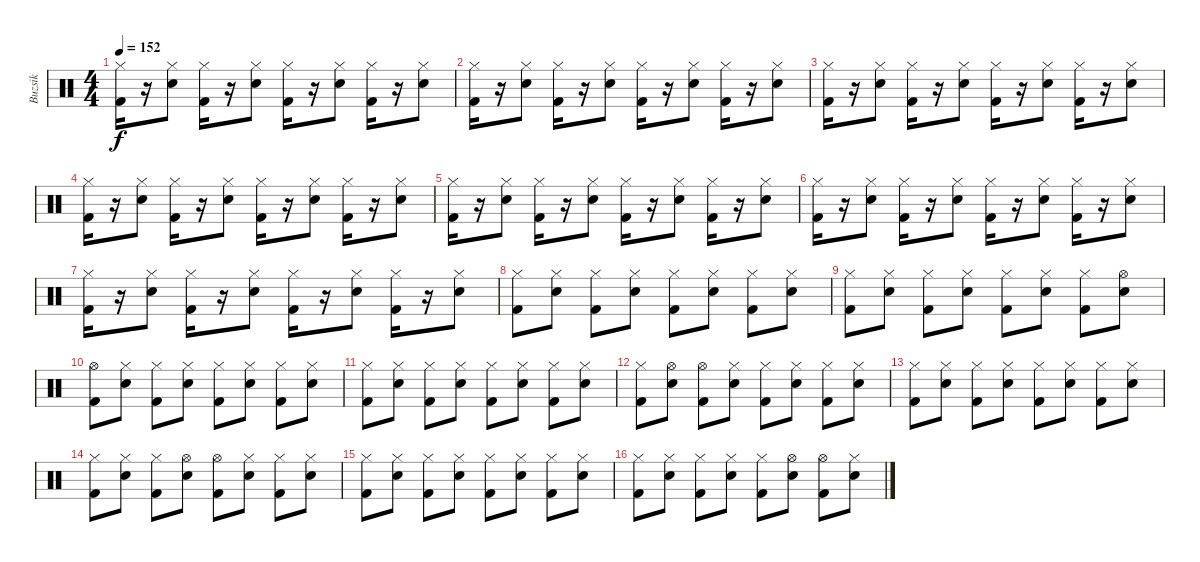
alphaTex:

\track ("Buzsik" "Buzsik") {instrument percussion}
\staff {score}
\articulation defaults
\ts (4 4)
\tempo 152
\clef neutral
\ks c
("Hi-Hat (closed)" "Kick (hit) 2").16{dy f} r.16 ("Hi-Hat (closed)" "Electric Snare (hit)").8 ("Hi-Hat (closed)" "Kick (hit) 2").16 r.16 ("Hi-Hat (closed)" "Electric Snare (hit)").8 ("Hi-Hat (closed)" "Kick (hit) 2").16 r.16 ("Hi-Hat (closed)" "Electric Snare (hit)").8 ("Hi-Hat (closed)" "Kick (hit) 2").16 r.16 ("Hi-Hat (closed)" "Electric Snare (hit)").8 |
("Hi-Hat (closed)" "Kick (hit) 2").16 r.16 ("Hi-Hat (closed)" "Electric Snare (hit)").8 ("Hi-Hat (closed)" "Kick (hit) 2").16 r.16 ("Hi-Hat (closed)" "Electric Snare (hit)").8 ("Hi-Hat (closed)" "Kick (hit) 2").16 r.16 ("Hi-Hat (closed)" "Electric Snare (hit)").8 ("Hi-Hat (closed)" "Kick (hit) 2").16 r.16 ("Hi-Hat (closed)" "Electric Snare (hit)").8 |
("Hi-Hat (closed)" "Kick (hit) 2").16 r.16 ("Hi-Hat (closed)" "Electric Snare (hit)").8 ("Hi-Hat (closed)" "Kick (hit) 2").16 r.16 ("Hi-Hat (closed)" "Electric Snare (hit)").8 ("Hi-Hat (closed)" "Kick (hit) 2").16 r.16 ("Hi-Hat (closed)" "Electric Snare (hit)").8 ("Hi-Hat (closed)" "Kick (hit) 2").16 r.16 ("Hi-Hat (closed)" "Electric Snare (hit)").8 |
("Hi-Hat (closed)" "Kick (hit) 2").16 r.16 ("Hi-Hat (closed)" "Electric Snare (hit)").8 ("Hi-Hat (closed)" "Kick (hit) 2").16 r.16 ("Hi-Hat (closed)" "Electric Snare (hit)").8 ("Hi-Hat (closed)" "Kick (hit) 2").16 r.16 ("Hi-Hat (closed)" "Electric Snare (hit)").8 ("Hi-Hat (closed)" "Kick (hit) 2").16 r.16 ("Hi-Hat (closed)" "Electric Snare (hit)").8 |
("Hi-Hat (closed)" "Kick (hit) 2").16 r.16 ("Hi-Hat (closed)" "Electric Snare (hit)").8 ("Hi-Hat (closed)" "Kick (hit) 2").16 r.16 ("Hi-Hat (closed)" "Electric Snare (hit)").8 ("Hi-Hat (closed)" "Kick (hit) 2").16 r.16 ("Hi-Hat (closed)" "Electric Snare (hit)").8 ("Hi-Hat (closed)" "Kick (hit) 2").16 r.16 ("Hi-Hat (closed)" "Electric Snare (hit)").8 |
("Hi-Hat (closed)" "Kick (hit) 2").16 r.16 ("Hi-Hat (closed)" "Electric Snare (hit)").8 ("Hi-Hat (closed)" "Kick (hit) 2").16 r.16 ("Hi-Hat (closed)" "Electric Snare (hit)").8 ("Hi-Hat (closed)" "Kick (hit) 2").16 r.16 ("Hi-Hat (closed)" "Electric Snare (hit)").8 ("Hi-Hat (closed)" "Kick (hit) 2").16 r.16 ("Hi-Hat (closed)" "Electric Snare (hit)").8 |
("Hi-Hat (closed)" "Kick (hit) 2").16 r.16 ("Hi-Hat (closed)" "Electric Snare (hit)").8 ("Hi-Hat (closed)" "Kick (hit) 2").16 r.16 ("Hi-Hat (closed)" "Electric Snare (hit)").8 ("Hi-Hat (closed)" "Kick (hit) 2").16 r.16 ("Hi-Hat (closed)" "Electric Snare (hit)").8 ("Hi-Hat (closed)" "Kick (hit) 2").16 r.16 ("Hi-Hat (closed)" "Electric Snare (hit)").8 |
("Hi-Hat (closed)" "Kick (hit) 2").8 ("Hi-Hat (closed)" "Electric Snare (hit)").8 ("Hi-Hat (closed)" "Kick (hit) 2").8 ("Hi-Hat (closed)" "Electric Snare (hit)").8 ("Hi-Hat (closed)" "Kick (hit) 2").8 ("Hi-Hat (closed)" "Electric Snare (hit)").8 ("Hi-Hat (closed)" "Kick (hit) 2").8 ("Hi-Hat (closed)" "Electric Snare (hit)").8 |
("Hi-Hat (closed)" "Kick (hit) 2").8 ("Hi-Hat (closed)" "Electric Snare (hit)").8 ("Hi-Hat (closed)" "Kick (hit) 2").8 ("Hi-Hat (closed)" "Electric Snare (hit)").8 ("Hi-Hat (closed)" "Kick (hit) 2").8 ("Hi-Hat (closed)" "Electric Snare (hit)").8 ("Hi-Hat (closed)" "Kick (hit) 2").8 ("Hi-Hat (open)" "Electric Snare (hit)").8 |
("Hi-Hat (open)" "Kick (hit) 2").8 ("Hi-Hat (closed)" "Electric Snare (hit)").8 ("Hi-Hat (closed)" "Kick (hit) 2").8 ("Hi-Hat (closed)" "Electric Snare (hit)").8 ("Hi-Hat (closed)" "Kick (hit) 2").8 ("Hi-Hat (closed)" "Electric Snare (hit)").8 ("Hi-Hat (closed)" "Kick (hit) 2").8 ("Hi-Hat (closed)" "Electric Snare (hit)").8 |
("Hi-Hat (closed)" "Kick (hit) 2").8 ("Hi-Hat (closed)" "Electric Snare (hit)").8 ("Hi-Hat (closed)" "Kick (hit) 2").8 ("Hi-Hat (closed)" "Electric Snare (hit)").8 ("Hi-Hat (closed)" "Kick (hit) 2").8 ("Hi-Hat (closed)" "Electric Snare (hit)").8 ("Hi-Hat (closed)" "Kick (hit) 2").8 ("Hi-Hat (closed)" "Electric Snare (hit)").8 |
("Hi-Hat (closed)" "Kick (hit) 2").8 ("Hi-Hat (open)" "Electric Snare (hit)").8 ("Hi-Hat (open)" "Kick (hit) 2").8 ("Hi-Hat (closed)" "Electric Snare (hit)").8 ("Hi-Hat (closed)" "Kick (hit) 2").8 ("Hi-Hat (closed)" "Electric Snare (hit)").8 ("Hi-Hat (closed)" "Kick (hit) 2").8 ("Hi-Hat (closed)" "Electric Snare (hit)").8 |
("Hi-Hat (closed)" "Kick (hit) 2").8 ("Hi-Hat (closed)" "Electric Snare (hit)").8 ("Hi-Hat (closed)" "Kick (hit) 2").8 ("Hi-Hat (closed)" "Electric Snare (hit)").8 ("Hi-Hat (closed)" "Kick (hit) 2").8 ("Hi-Hat (closed)" "Electric Snare (hit)").8 ("Hi-Hat (closed)" "Kick (hit) 2").8 ("Hi-Hat (closed)" "Electric Snare (hit)").8 |
("Hi-Hat (closed)" "Kick (hit) 2").8 ("Hi-Hat (closed)" "Electric Snare (hit)").8 ("Hi-Hat (closed)" "Kick (hit) 2").8 ("Hi-Hat (open)" "Electric Snare (hit)").8 ("Hi-Hat (open)" "Kick (hit) 2").8 ("Hi-Hat (closed)" "Electric Snare (hit)").8 ("Hi-Hat (closed)" "Kick (hit) 2").8 ("Hi-Hat (closed)" "Electric Snare (hit)").8 |
("Hi-Hat (closed)" "Kick (hit) 2").8 ("Hi-Hat (closed)" "Electric Snare (hit)").8 ("Hi-Hat (closed)" "Kick (hit) 2").8 ("Hi-Hat (closed)" "Electric Snare (hit)").8 ("Hi-Hat (closed)" "Kick (hit) 2").8 ("Hi-Hat (closed)" "Electric Snare (hit)").8 ("Hi-Hat (closed)" "Kick (hit) 2").8 ("Hi-Hat (closed)" "Electric Snare (hit)").8 |
("Hi-Hat (closed)" "Kick (hit) 2").8 ("Hi-Hat (closed)" "Electric Snare (hit)").8 ("Hi-Hat (closed)" "Kick (hit) 2").8 ("Hi-Hat (closed)" "Electric Snare (hit)").8 ("Hi-Hat (closed)" "Kick (hit) 2").8 ("Hi-Hat (open)" "Electric Snare (hit)").8 ("Hi-Hat (open)" "Kick (hit) 2").8 ("Hi-Hat (closed)" "Electric Snare (hit)").8
